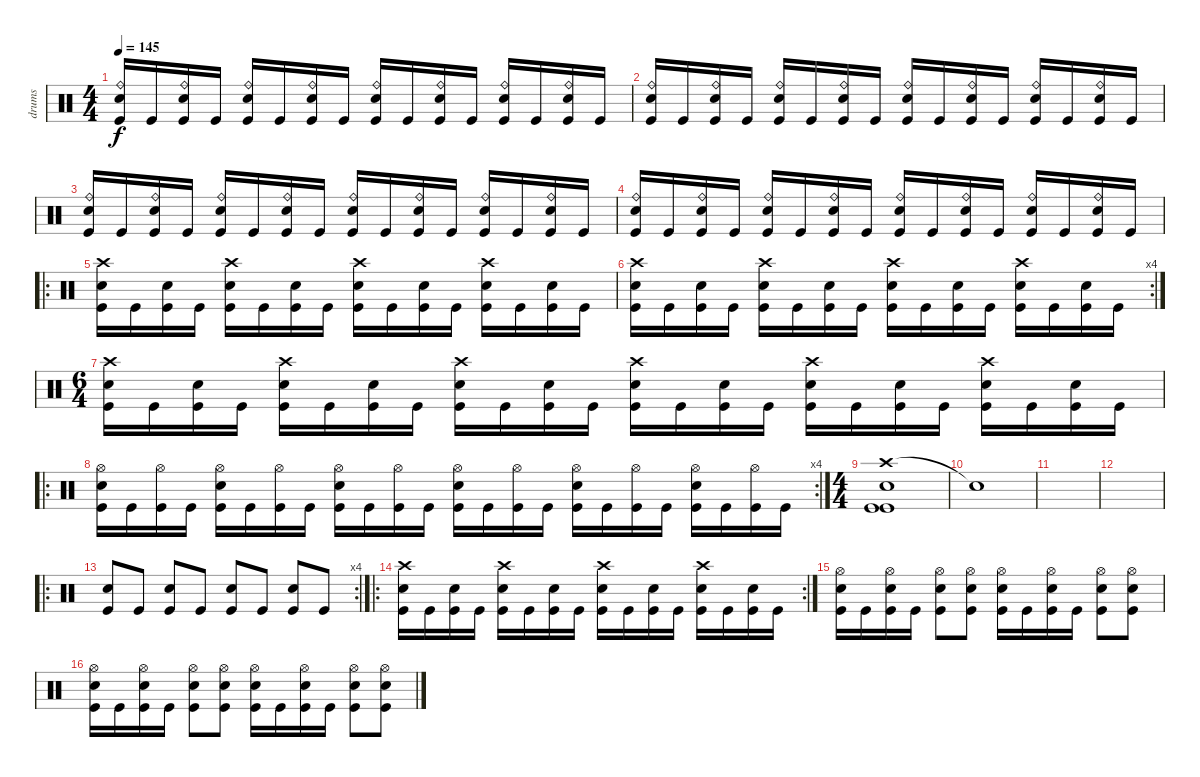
\track ("drums" "drums") {instrument percussion}
\staff {score}
\articulation defaults
\ts (4 4)
\tempo 145
\clef neutral
\ks c
("Electric Snare (hit)" "Ride (bell)" "Kick (hit)").16{dy f} "Kick (hit)".16 ("Electric Snare (hit)" "Ride (bell)" "Kick (hit)").16 "Kick (hit)".16 ("Electric Snare (hit)" "Ride (bell)" "Kick (hit)").16 "Kick (hit)".16 ("Electric Snare (hit)" "Ride (bell)" "Kick (hit)").16 "Kick (hit)".16 ("Electric Snare (hit)" "Ride (bell)" "Kick (hit)").16 "Kick (hit)".16 ("Electric Snare (hit)" "Ride (bell)" "Kick (hit)").16 "Kick (hit)".16 ("Electric Snare (hit)" "Ride (bell)" "Kick (hit)").16 "Kick (hit)".16 ("Electric Snare (hit)" "Ride (bell)" "Kick (hit)").16 "Kick (hit)".16 |
("Electric Snare (hit)" "Ride (bell)" "Kick (hit)").16 "Kick (hit)".16 ("Electric Snare (hit)" "Ride (bell)" "Kick (hit)").16 "Kick (hit)".16 ("Electric Snare (hit)" "Ride (bell)" "Kick (hit)").16 "Kick (hit)".16 ("Electric Snare (hit)" "Ride (bell)" "Kick (hit)").16 "Kick (hit)".16 ("Electric Snare (hit)" "Ride (bell)" "Kick (hit)").16 "Kick (hit)".16 ("Electric Snare (hit)" "Ride (bell)" "Kick (hit)").16 "Kick (hit)".16 ("Electric Snare (hit)" "Ride (bell)" "Kick (hit)").16 "Kick (hit)".16 ("Electric Snare (hit)" "Ride (bell)" "Kick (hit)").16 "Kick (hit)".16 |
("Electric Snare (hit)" "Ride (bell)" "Kick (hit)").16 "Kick (hit)".16 ("Electric Snare (hit)" "Ride (bell)" "Kick (hit)").16 "Kick (hit)".16 ("Electric Snare (hit)" "Ride (bell)" "Kick (hit)").16 "Kick (hit)".16 ("Electric Snare (hit)" "Ride (bell)" "Kick (hit)").16 "Kick (hit)".16 ("Electric Snare (hit)" "Ride (bell)" "Kick (hit)").16 "Kick (hit)".16 ("Electric Snare (hit)" "Ride (bell)" "Kick (hit)").16 "Kick (hit)".16 ("Electric Snare (hit)" "Ride (bell)" "Kick (hit)").16 "Kick (hit)".16 ("Electric Snare (hit)" "Ride (bell)" "Kick (hit)").16 "Kick (hit)".16 |
("Electric Snare (hit)" "Ride (bell)" "Kick (hit)").16 "Kick (hit)".16 ("Electric Snare (hit)" "Ride (bell)" "Kick (hit)").16 "Kick (hit)".16 ("Electric Snare (hit)" "Ride (bell)" "Kick (hit)").16 "Kick (hit)".16 ("Electric Snare (hit)" "Ride (bell)" "Kick (hit)").16 "Kick (hit)".16 ("Electric Snare (hit)" "Ride (bell)" "Kick (hit)").16 "Kick (hit)".16 ("Electric Snare (hit)" "Ride (bell)" "Kick (hit)").16 "Kick (hit)".16 ("Electric Snare (hit)" "Ride (bell)" "Kick (hit)").16 "Kick (hit)".16 ("Electric Snare (hit)" "Ride (bell)" "Kick (hit)").16 "Kick (hit)".16 |
\ro
("Electric Snare (hit)" "Crash high (hit)" "Kick (hit)").16 "Kick (hit)".16 ("Electric Snare (hit)" "Kick (hit)").16 "Kick (hit)".16 ("Electric Snare (hit)" "Crash high (hit)" "Kick (hit)").16 "Kick (hit)".16 ("Electric Snare (hit)" "Kick (hit)").16 "Kick (hit)".16 ("Electric Snare (hit)" "Crash high (hit)" "Kick (hit)").16 "Kick (hit)".16 ("Electric Snare (hit)" "Kick (hit)").16 "Kick (hit)".16 ("Electric Snare (hit)" "Crash high (hit)" "Kick (hit)").16 "Kick (hit)".16 ("Electric Snare (hit)" "Kick (hit)").16 "Kick (hit)".16 |
\rc 4
("Electric Snare (hit)" "Crash high (hit)" "Kick (hit)").16 "Kick (hit)".16 ("Electric Snare (hit)" "Kick (hit)").16 "Kick (hit)".16 ("Electric Snare (hit)" "Crash high (hit)" "Kick (hit)").16 "Kick (hit)".16 ("Electric Snare (hit)" "Kick (hit)").16 "Kick (hit)".16 ("Electric Snare (hit)" "Crash high (hit)" "Kick (hit)").16 "Kick (hit)".16 ("Electric Snare (hit)" "Kick (hit)").16 "Kick (hit)".16 ("Electric Snare (hit)" "Crash high (hit)" "Kick (hit)").16 "Kick (hit)".16 ("Electric Snare (hit)" "Kick (hit)").16 "Kick (hit)".16 |
\ts (6 4)
("Electric Snare (hit)" "Crash high (hit)" "Kick (hit)").16 "Kick (hit)".16 ("Electric Snare (hit)" "Kick (hit)").16 "Kick (hit)".16 ("Electric Snare (hit)" "Crash high (hit)" "Kick (hit)").16 "Kick (hit)".16 ("Electric Snare (hit)" "Kick (hit)").16 "Kick (hit)".16 ("Electric Snare (hit)" "Crash high (hit)" "Kick (hit)").16 "Kick (hit)".16 ("Electric Snare (hit)" "Kick (hit)").16 "Kick (hit)".16 ("Electric Snare (hit)" "Crash high (hit)" "Kick (hit)").16 "Kick (hit)".16 ("Electric Snare (hit)" "Kick (hit)").16 "Kick (hit)".16 ("Electric Snare (hit)" "Crash high (hit)" "Kick (hit)").16 "Kick (hit)".16 ("Electric Snare (hit)" "Kick (hit)").16 "Kick (hit)".16 ("Electric Snare (hit)" "Crash high (hit)" "Kick (hit)").16 "Kick (hit)".16 ("Electric Snare (hit)" "Kick (hit)").16 "Kick (hit)".16 |
\ro
\rc 4
("Electric Snare (hit)" "Hi-Hat (open)" "Kick (hit)").16 "Kick (hit)".16 ("Hi-Hat (open)" "Kick (hit)").16 "Kick (hit)".16 ("Electric Snare (hit)" "Hi-Hat (open)" "Kick (hit)").16 "Kick (hit)".16 ("Hi-Hat (open)" "Kick (hit)").16 "Kick (hit)".16 ("Electric Snare (hit)" "Hi-Hat (open)" "Kick (hit)").16 "Kick (hit)".16 ("Hi-Hat (open)" "Kick (hit)").16 "Kick (hit)".16 ("Electric Snare (hit)" "Hi-Hat (open)" "Kick (hit)").16 "Kick (hit)".16 ("Hi-Hat (open)" "Kick (hit)").16 "Kick (hit)".16 ("Electric Snare (hit)" "Hi-Hat (open)" "Kick (hit)").16 "Kick (hit)".16 ("Hi-Hat (open)" "Kick (hit)").16 "Kick (hit)".16 ("Electric Snare (hit)" "Hi-Hat (open)" "Kick (hit)").16 "Kick (hit)".16 ("Hi-Hat (open)" "Kick (hit)").16 "Kick (hit)".16 |
\ts (4 4)
("Crash high (hit)" "Electric Snare (hit)" "Kick (hit)" "Kick (hit)").1 |
"Snare (hit)"{t}.1 |
|
|
\ro
\rc 4
("Electric Snare (hit)" "Kick (hit)").8 "Kick (hit)".8 ("Electric Snare (hit)" "Kick (hit)").8 "Kick (hit)".8 ("Electric Snare (hit)" "Kick (hit)").8 "Kick (hit)".8 ("Electric Snare (hit)" "Kick (hit)").8 "Kick (hit)".8 |
\ro
\rc 2
("Electric Snare (hit)" "Crash high (hit)" "Kick (hit)").16 "Kick (hit)".16 ("Electric Snare (hit)" "Kick (hit)").16 "Kick (hit)".16 ("Electric Snare (hit)" "Crash high (hit)" "Kick (hit)").16 "Kick (hit)".16 ("Electric Snare (hit)" "Kick (hit)").16 "Kick (hit)".16 ("Electric Snare (hit)" "Crash high (hit)" "Kick (hit)").16 "Kick (hit)".16 ("Electric Snare (hit)" "Kick (hit)").16 "Kick (hit)".16 ("Electric Snare (hit)" "Crash high (hit)" "Kick (hit)").16 "Kick (hit)".16 ("Electric Snare (hit)" "Kick (hit)").16 "Kick (hit)".16 |
("Electric Snare (hit)" "Hi-Hat (open)" "Kick (hit)").16 "Kick (hit)".16 ("Electric Snare (hit)" "Hi-Hat (open)" "Kick (hit)").16 "Kick (hit)".16 ("Electric Snare (hit)" "Hi-Hat (open)" "Kick (hit)").8 ("Electric Snare (hit)" "Hi-Hat (open)" "Kick (hit)").8 ("Electric Snare (hit)" "Hi-Hat (open)" "Kick (hit)").16 "Kick (hit)".16 ("Electric Snare (hit)" "Hi-Hat (open)" "Kick (hit)").16 "Kick (hit)".16 ("Electric Snare (hit)" "Hi-Hat (open)" "Kick (hit)").8 ("Electric Snare (hit)" "Hi-Hat (open)" "Kick (hit)").8 |
("Electric Snare (hit)" "Hi-Hat (open)" "Kick (hit)").16 "Kick (hit)".16 ("Electric Snare (hit)" "Hi-Hat (open)" "Kick (hit)").16 "Kick (hit)".16 ("Electric Snare (hit)" "Hi-Hat (open)" "Kick (hit)").8 ("Electric Snare (hit)" "Hi-Hat (open)" "Kick (hit)").8 ("Electric Snare (hit)" "Hi-Hat (open)" "Kick (hit)").16 "Kick (hit)".16 ("Electric Snare (hit)" "Hi-Hat (open)" "Kick (hit)").16 "Kick (hit)".16 ("Electric Snare (hit)" "Hi-Hat (open)" "Kick (hit)").8 ("Electric Snare (hit)" "Hi-Hat (open)" "Kick (hit)").8
